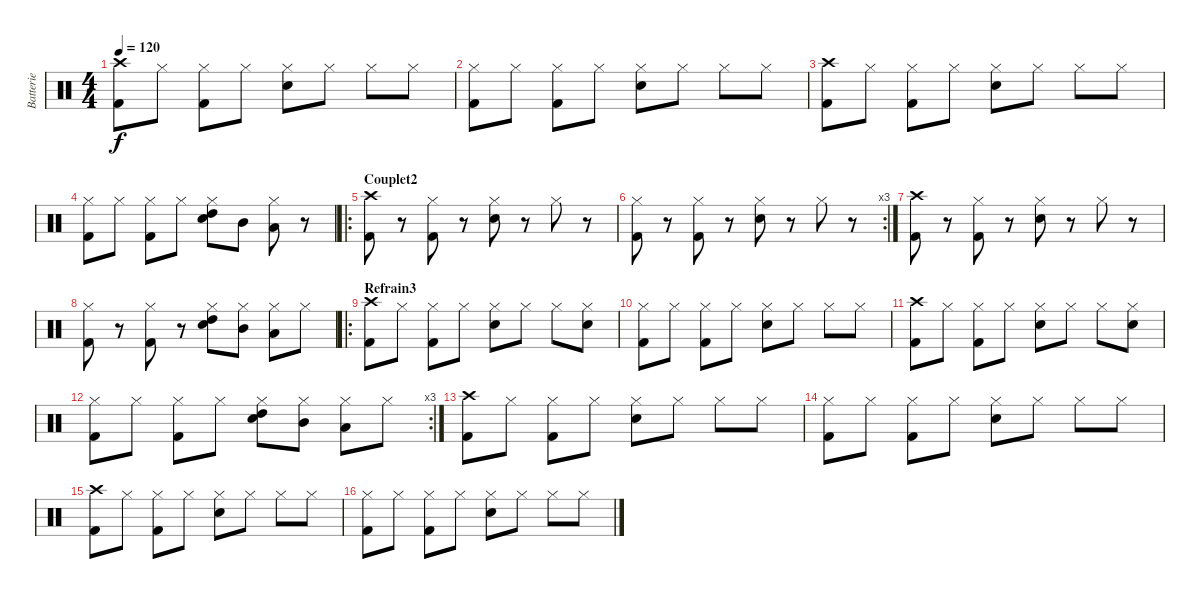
\track ("Batterie" "Batterie") {instrument percussion}
\staff {score}
\articulation defaults
\ts (4 4)
\tempo 120
\clef neutral
\ks c
("Crash high (hit)" "Kick (hit) 2").8{dy f} "Hi-Hat (closed)".8 ("Hi-Hat (closed)" "Kick (hit) 2").8 "Hi-Hat (closed)".8 ("Hi-Hat (closed)" "Electric Snare (hit)").8 "Hi-Hat (closed)".8 "Hi-Hat (closed)".8 "Hi-Hat (closed)".8 |
("Hi-Hat (closed)" "Kick (hit) 2").8 "Hi-Hat (closed)".8 ("Hi-Hat (closed)" "Kick (hit) 2").8 "Hi-Hat (closed)".8 ("Hi-Hat (closed)" "Electric Snare (hit)").8 "Hi-Hat (closed)".8 "Hi-Hat (closed)".8 "Hi-Hat (closed)".8 |
("Crash high (hit)" "Kick (hit) 2").8 "Hi-Hat (closed)".8 ("Hi-Hat (closed)" "Kick (hit) 2").8 "Hi-Hat (closed)".8 ("Hi-Hat (closed)" "Electric Snare (hit)").8 "Hi-Hat (closed)".8 "Hi-Hat (closed)".8 "Hi-Hat (closed)".8 |
("Hi-Hat (closed)" "Kick (hit) 2").8 "Hi-Hat (closed)".8 ("Hi-Hat (closed)" "Kick (hit) 2").8 "Hi-Hat (closed)".8 ("Hi-Hat (closed)" "Electric Snare (hit)" "High Tom (hit)").8 "Mid Tom (hit)".8 ("Hi-Hat (closed)" "Low Tom (hit)").8 r.8 |
\ro
\section ("" "Couplet2")
("Crash high (hit)" "Kick (hit) 2").8 r.8 ("Hi-Hat (closed)" "Kick (hit) 2").8 r.8 ("Hi-Hat (closed)" "Electric Snare (hit)").8 r.8 "Hi-Hat (closed)".8 r.8 |
\rc 3
("Hi-Hat (closed)" "Kick (hit) 2").8 r.8 ("Hi-Hat (closed)" "Kick (hit) 2").8 r.8 ("Hi-Hat (closed)" "Electric Snare (hit)").8 r.8 "Hi-Hat (closed)".8 r.8 |
("Crash high (hit)" "Kick (hit) 2").8 r.8 ("Hi-Hat (closed)" "Kick (hit) 2").8 r.8 ("Hi-Hat (closed)" "Electric Snare (hit)").8 r.8 "Hi-Hat (closed)".8 r.8 |
("Hi-Hat (closed)" "Kick (hit) 2").8 r.8 ("Hi-Hat (closed)" "Kick (hit) 2").8 r.8 ("Hi-Hat (closed)" "Electric Snare (hit)" "High Tom (hit)").8 ("Hi-Hat (closed)" "Mid Tom (hit)").8 ("Hi-Hat (closed)" "Low Tom (hit)").8 "Hi-Hat (closed)".8 |
\ro
\section ("" "Refrain3")
("Crash high (hit)" "Kick (hit) 2").8 "Hi-Hat (closed)".8 ("Hi-Hat (closed)" "Kick (hit) 2").8 "Hi-Hat (closed)".8 ("Hi-Hat (closed)" "Electric Snare (hit)").8 "Hi-Hat (closed)".8 "Hi-Hat (closed)".8 ("Hi-Hat (closed)" "Electric Snare (hit)").8 |
("Hi-Hat (closed)" "Kick (hit) 2").8 "Hi-Hat (closed)".8 ("Hi-Hat (closed)" "Kick (hit) 2").8 "Hi-Hat (closed)".8 ("Hi-Hat (closed)" "Electric Snare (hit)").8 "Hi-Hat (closed)".8 "Hi-Hat (closed)".8 "Hi-Hat (closed)".8 |
("Crash high (hit)" "Kick (hit) 2").8 "Hi-Hat (closed)".8 ("Hi-Hat (closed)" "Kick (hit) 2").8 "Hi-Hat (closed)".8 ("Hi-Hat (closed)" "Electric Snare (hit)").8 "Hi-Hat (closed)".8 "Hi-Hat (closed)".8 ("Hi-Hat (closed)" "Electric Snare (hit)").8 |
\rc 3
("Hi-Hat (closed)" "Kick (hit) 2").8 "Hi-Hat (closed)".8 ("Hi-Hat (closed)" "Kick (hit) 2").8 "Hi-Hat (closed)".8 ("Hi-Hat (closed)" "Electric Snare (hit)" "High Tom (hit)").8 ("Hi-Hat (closed)" "Mid Tom (hit)").8 ("Hi-Hat (closed)" "Low Tom (hit)").8 "Hi-Hat (closed)".8 |
("Crash high (hit)" "Kick (hit) 2").8 "Hi-Hat (closed)".8 ("Hi-Hat (closed)" "Kick (hit) 2").8 "Hi-Hat (closed)".8 ("Hi-Hat (closed)" "Electric Snare (hit)").8 "Hi-Hat (closed)".8 "Hi-Hat (closed)".8 "Hi-Hat (closed)".8 |
("Hi-Hat (closed)" "Kick (hit) 2").8 "Hi-Hat (closed)".8 ("Hi-Hat (closed)" "Kick (hit) 2").8 "Hi-Hat (closed)".8 ("Hi-Hat (closed)" "Electric Snare (hit)").8 "Hi-Hat (closed)".8 "Hi-Hat (closed)".8 "Hi-Hat (closed)".8 |
("Crash high (hit)" "Kick (hit) 2").8 "Hi-Hat (closed)".8 ("Hi-Hat (closed)" "Kick (hit) 2").8 "Hi-Hat (closed)".8 ("Hi-Hat (closed)" "Electric Snare (hit)").8 "Hi-Hat (closed)".8 "Hi-Hat (closed)".8 "Hi-Hat (closed)".8 |
("Hi-Hat (closed)" "Kick (hit) 2").8 "Hi-Hat (closed)".8 ("Hi-Hat (closed)" "Kick (hit) 2").8 "Hi-Hat (closed)".8 ("Hi-Hat (closed)" "Electric Snare (hit)").8 "Hi-Hat (closed)".8 "Hi-Hat (closed)".8 "Hi-Hat (closed)".8
